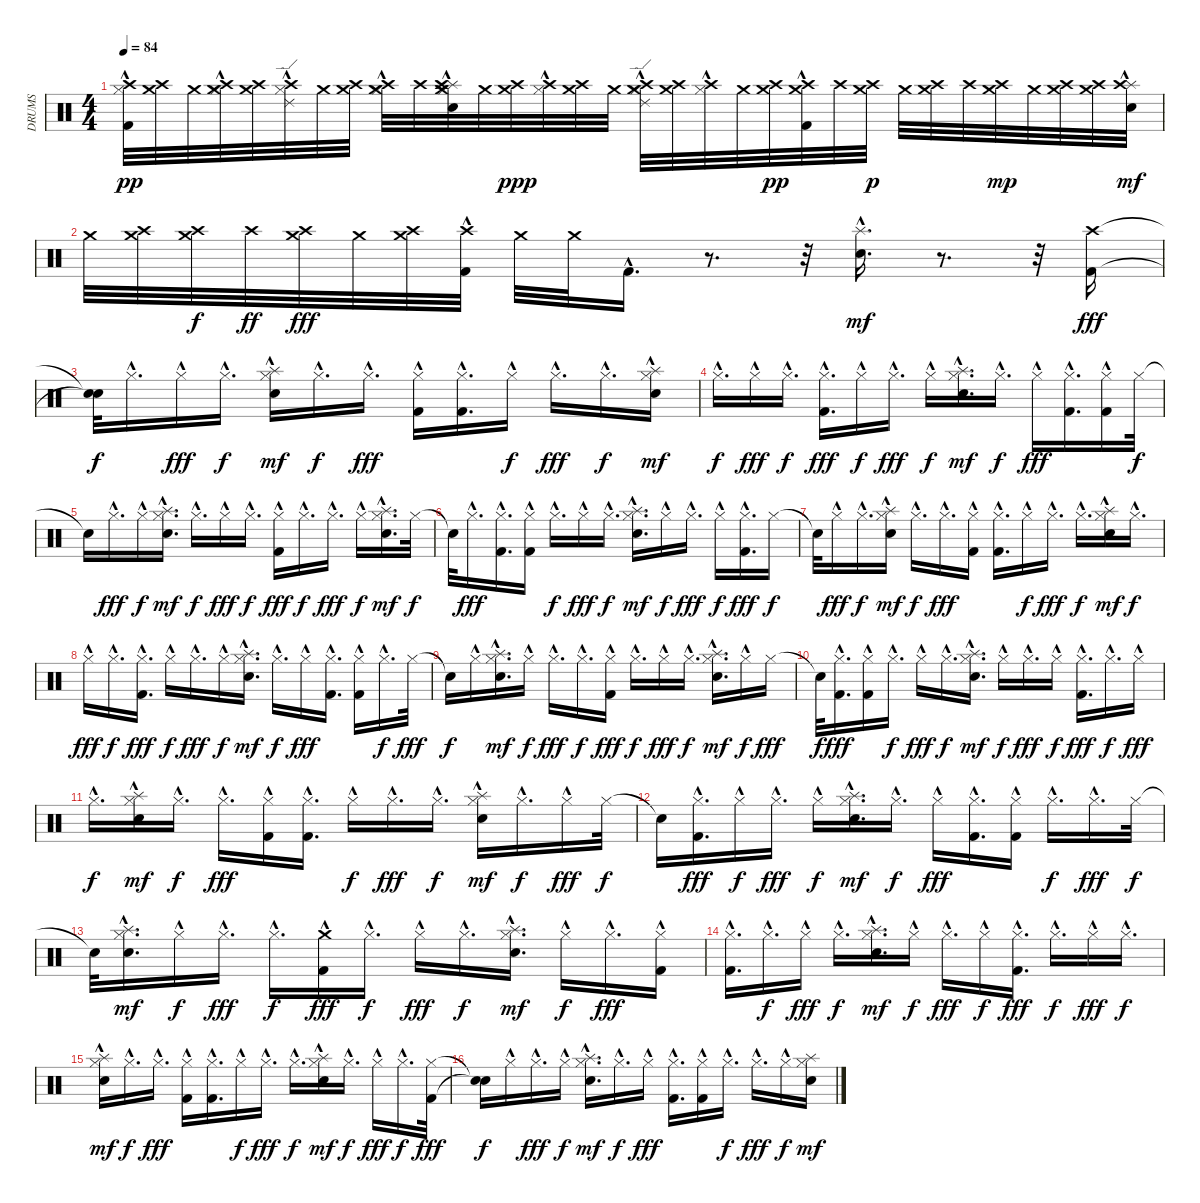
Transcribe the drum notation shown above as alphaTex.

\track ("DRUMS" "DRUMS") {instrument percussion}
\staff {score}
\articulation defaults
\ts (4 4)
\tempo 84
\clef neutral
\ks c
("Hi-Hat (closed)"{hac} "Kick (hit) 2"{hac} "Crash high (hit)").32{dy pp} ("Crash medium (hit)" "Crash high (hit)").32 "Crash medium (hit)".32 ("Hi-Hat (closed)"{hac} "Crash high (hit)" "Crash medium (hit)").32 ("Crash high (hit)" "Crash medium (hit)").32 ("Ride (edge) 2"{hac} "Hi-Hat (closed)"{hac} "Crash high (hit)").32 "Crash medium (hit)".32 ("Crash high (hit)" "Crash medium (hit)").32 ("Hi-Hat (closed)"{hac} "Crash high (hit)" "Crash medium (hit)").32 "Crash high (hit)".32 ("Crash medium (hit)" "Hi-Hat (closed)"{hac} "Snare (hit) 2"{hac} "Splash (hit)"{hac} "Crash high (hit)").32 "Crash medium (hit)".32 ("Crash high (hit)" "Crash medium (hit)").32{dy ppp} ("Hi-Hat (closed)"{hac} "Crash high (hit)").32 ("Crash medium (hit)" "Crash high (hit)").32 "Crash medium (hit)".32 ("Ride (edge) 2"{hac} "Hi-Hat (closed)"{hac} "Crash high (hit)" "Crash medium (hit)").32 ("Crash high (hit)" "Crash medium (hit)").32 ("Hi-Hat (closed)"{hac} "Crash high (hit)").32 "Crash medium (hit)".32 ("Crash high (hit)" "Crash medium (hit)").32{dy pp} ("Kick (hit) 2"{hac} "Crash high (hit)" "Crash medium (hit)").32 "Crash high (hit)".32 ("Crash medium (hit)" "Crash high (hit)").32{dy p} "Crash medium (hit)".32 ("Crash high (hit)" "Crash medium (hit)").32 "Crash high (hit)".32 ("Crash medium (hit)" "Crash high (hit)").32{dy mp} "Crash medium (hit)".32 ("Crash high (hit)" "Crash medium (hit)").32 ("Crash high (hit)" "Crash medium (hit)").32 ("Snare (hit) 2"{hac} "Splash (hit)"{hac} "Crash high (hit)").32{dy mf} |
"Crash medium (hit)".32 ("Crash high (hit)" "Crash medium (hit)").32 ("Crash high (hit)" "Crash medium (hit)").32{dy f} "Crash high (hit)".32{dy ff} ("Crash medium (hit)" "Crash high (hit)").32{dy fff} "Crash medium (hit)".32 ("Crash high (hit)" "Crash medium (hit)").32 ("Kick (hit) 2"{hac} "Crash high (hit)").32 "Crash medium (hit)".32 "Crash medium (hit)".32 "Kick (hit) 2"{hac}.16{d} r.8{d} r.32 ("Snare (hit) 2"{hac} "Splash (hit)"{hac}).16{d dy mf} r.8{d} r.32 ("Kick (hit) 2" "Crash high (hit)").16{dy fff} |
("Snare (hit)"{t} "Snare (hit)"{t}).32{dy f} "Hi-Hat (closed)"{hac}.16{d} "Hi-Hat (closed)"{hac}.16{dy fff} "Hi-Hat (closed)"{hac}.16{d dy f} ("Hi-Hat (closed)"{hac} "Snare (hit) 2"{hac} "Splash (hit)"{hac}).16{dy mf} "Hi-Hat (closed)"{hac}.16{d dy f} "Hi-Hat (closed)"{hac}.16{d dy fff} ("Hi-Hat (closed)"{hac} "Kick (hit) 2"{hac}).16 ("Hi-Hat (closed)"{hac} "Kick (hit) 2"{hac}).16{d} "Hi-Hat (closed)"{hac}.16{dy f} "Hi-Hat (closed)"{hac}.16{d dy fff} "Hi-Hat (closed)"{hac}.16{d dy f} ("Snare (hit) 2"{hac} "Hi-Hat (closed)"{hac} "Splash (hit)"{hac}).16{dy mf} |
"Hi-Hat (closed)"{hac}.16{d dy f} "Hi-Hat (closed)"{hac}.16{dy fff} "Hi-Hat (closed)"{hac}.16{d dy f} ("Hi-Hat (closed)"{hac} "Kick (hit) 2"{hac}).16{d dy fff} "Hi-Hat (closed)"{hac}.16{dy f} "Hi-Hat (closed)"{hac}.16{d dy fff} "Hi-Hat (closed)"{hac}.16{dy f} ("Hi-Hat (closed)"{hac} "Snare (hit) 2"{hac} "Splash (hit)"{hac}).16{d dy mf} "Hi-Hat (closed)"{hac}.16{d dy f} "Hi-Hat (closed)"{hac}.16{dy fff} ("Hi-Hat (closed)"{hac} "Kick (hit) 2"{hac}).16{d} ("Hi-Hat (closed)"{hac} "Kick (hit) 2"{hac}).16 "Hi-Hat (closed)".32{dy f} |
"Snare (hit)"{t}.16 "Hi-Hat (closed)"{hac}.16{d dy fff} "Hi-Hat (closed)"{hac}.16{dy f} ("Hi-Hat (closed)"{hac} "Snare (hit) 2"{hac} "Splash (hit)"{hac}).16{d dy mf} "Hi-Hat (closed)"{hac}.16{d dy f} "Hi-Hat (closed)"{hac}.16{dy fff} "Hi-Hat (closed)"{hac}.16{d dy f} ("Hi-Hat (closed)"{hac} "Kick (hit) 2"{hac}).16{dy fff} "Hi-Hat (closed)"{hac}.16{d dy f} "Hi-Hat (closed)"{hac}.16{d dy fff} "Hi-Hat (closed)"{hac}.16{dy f} ("Hi-Hat (closed)"{hac} "Snare (hit) 2"{hac} "Splash (hit)"{hac}).16{d dy mf} "Hi-Hat (closed)".32{dy f} |
"Snare (hit)"{t}.32 "Hi-Hat (closed)"{hac}.16{d dy fff} ("Kick (hit) 2"{hac} "Hi-Hat (closed)"{hac}).16{d} ("Kick (hit) 2"{hac} "Hi-Hat (closed)"{hac}).16 "Hi-Hat (closed)"{hac}.16{d dy f} "Hi-Hat (closed)"{hac}.16{dy fff} "Hi-Hat (closed)"{hac}.16{d dy f} ("Hi-Hat (closed)"{hac} "Snare (hit) 2"{hac} "Splash (hit)"{hac}).16{d dy mf} "Hi-Hat (closed)"{hac}.16{dy f} "Hi-Hat (closed)"{hac}.16{d dy fff} "Hi-Hat (closed)"{hac}.16{dy f} ("Kick (hit) 2"{hac} "Hi-Hat (closed)"{hac}).16{d dy fff} "Hi-Hat (closed)".16{dy f} |
"Snare (hit)"{t}.32 "Hi-Hat (closed)"{hac}.16{dy fff} "Hi-Hat (closed)"{hac}.16{d dy f} ("Snare (hit) 2"{hac} "Hi-Hat (closed)"{hac} "Splash (hit)"{hac}).16{dy mf} "Hi-Hat (closed)"{hac}.16{d dy f} "Hi-Hat (closed)"{hac}.16{d dy fff} ("Kick (hit) 2"{hac} "Hi-Hat (closed)"{hac}).16 ("Hi-Hat (closed)"{hac} "Kick (hit) 2"{hac}).16{d} "Hi-Hat (closed)"{hac}.16{dy f} "Hi-Hat (closed)"{hac}.16{d dy fff} "Hi-Hat (closed)"{hac}.16{d dy f} ("Hi-Hat (closed)"{hac} "Snare (hit) 2"{hac} "Splash (hit)"{hac}).16{dy mf} "Hi-Hat (closed)"{hac}.16{d dy f} |
"Hi-Hat (closed)"{hac}.16{dy fff} "Hi-Hat (closed)"{hac}.16{d dy f} ("Kick (hit) 2"{hac} "Hi-Hat (closed)"{hac}).16{d dy fff} "Hi-Hat (closed)"{hac}.16{dy f} "Hi-Hat (closed)"{hac}.16{d dy fff} "Hi-Hat (closed)"{hac}.16{dy f} ("Hi-Hat (closed)"{hac} "Snare (hit) 2"{hac} "Splash (hit)"{hac}).16{d dy mf} "Hi-Hat (closed)"{hac}.16{d dy f} "Hi-Hat (closed)"{hac}.16{dy fff} ("Hi-Hat (closed)"{hac} "Kick (hit) 2"{hac}).16{d} ("Kick (hit) 2"{hac} "Hi-Hat (closed)"{hac}).16 "Hi-Hat (closed)"{hac}.16{d dy f} "Hi-Hat (closed)".32{dy fff} |
"Snare (hit)"{t}.16{dy f} "Hi-Hat (closed)"{hac}.16 ("Hi-Hat (closed)"{hac} "Snare (hit) 2"{hac} "Splash (hit)"{hac}).16{d dy mf} "Hi-Hat (closed)"{hac}.16{dy f} "Hi-Hat (closed)"{hac}.16{d dy fff} "Hi-Hat (closed)"{hac}.16{d dy f} ("Kick (hit) 2"{hac} "Hi-Hat (closed)"{hac}).16{dy fff} "Hi-Hat (closed)"{hac}.16{d dy f} "Hi-Hat (closed)"{hac}.16{dy fff} "Hi-Hat (closed)"{hac}.16{d dy f} ("Snare (hit) 2"{hac} "Hi-Hat (closed)"{hac} "Splash (hit)"{hac}).16{d dy mf} "Hi-Hat (closed)"{hac}.16{dy f} "Hi-Hat (closed)".16{dy fff} |
"Snare (hit)"{t}.32{dy f} ("Kick (hit) 2"{hac} "Hi-Hat (closed)"{hac}).16{d dy fff} ("Kick (hit) 2"{hac} "Hi-Hat (closed)"{hac}).16 "Hi-Hat (closed)"{hac}.16{d dy f} "Hi-Hat (closed)"{hac}.16{dy fff} "Hi-Hat (closed)"{hac}.16{d dy f} ("Snare (hit) 2"{hac} "Hi-Hat (closed)"{hac} "Splash (hit)"{hac}).16{d dy mf} "Hi-Hat (closed)"{hac}.16{dy f} "Hi-Hat (closed)"{hac}.16{d dy fff} "Hi-Hat (closed)"{hac}.16{dy f} ("Hi-Hat (closed)"{hac} "Kick (hit) 2"{hac}).16{d dy fff} "Hi-Hat (closed)"{hac}.16{d dy f} "Hi-Hat (closed)"{hac}.16{dy fff} |
"Hi-Hat (closed)"{hac}.16{d dy f} ("Hi-Hat (closed)"{hac} "Snare (hit) 2"{hac} "Splash (hit)"{hac}).16{dy mf} "Hi-Hat (closed)"{hac}.16{d dy f} "Hi-Hat (closed)"{hac}.16{d dy fff} ("Hi-Hat (closed)"{hac} "Kick (hit) 2"{hac}).16 ("Hi-Hat (closed)"{hac} "Kick (hit) 2"{hac}).16{d} "Hi-Hat (closed)"{hac}.16{dy f} "Hi-Hat (closed)"{hac}.16{d dy fff} "Hi-Hat (closed)"{hac}.16{d dy f} ("Hi-Hat (closed)"{hac} "Snare (hit) 2"{hac} "Splash (hit)"{hac}).16{dy mf} "Hi-Hat (closed)"{hac}.16{d dy f} "Hi-Hat (closed)"{hac}.16{dy fff} "Hi-Hat (closed)".32{dy f} |
"Snare (hit)"{t}.16 ("Kick (hit) 2"{hac} "Hi-Hat (closed)"{hac}).16{d dy fff} "Hi-Hat (closed)"{hac}.16{dy f} "Hi-Hat (closed)"{hac}.16{d dy fff} "Hi-Hat (closed)"{hac}.16{dy f} ("Hi-Hat (closed)"{hac} "Snare (hit) 2"{hac} "Splash (hit)"{hac}).16{d dy mf} "Hi-Hat (closed)"{hac}.16{d dy f} "Hi-Hat (closed)"{hac}.16{dy fff} ("Kick (hit) 2"{hac} "Hi-Hat (closed)"{hac}).16{d} ("Kick (hit) 2"{hac} "Hi-Hat (closed)"{hac}).16 "Hi-Hat (closed)"{hac}.16{d dy f} "Hi-Hat (closed)"{hac}.16{d dy fff} "Hi-Hat (closed)".32{dy f} |
"Snare (hit)"{t}.32 ("Hi-Hat (closed)"{hac} "Snare (hit) 2"{hac} "Splash (hit)"{hac}).16{d dy mf} "Hi-Hat (closed)"{hac}.16{dy f} "Hi-Hat (closed)"{hac}.16{d dy fff} "Hi-Hat (closed)"{hac}.16{d dy f} ("Crash medium (hit)" "Kick (hit) 2"{hac}).16{dy fff} "Hi-Hat (closed)"{hac}.16{d dy f} "Hi-Hat (closed)"{hac}.16{dy fff} "Hi-Hat (closed)"{hac}.16{d dy f} ("Snare (hit) 2"{hac} "Hi-Hat (closed)"{hac} "Splash (hit)"{hac}).16{d dy mf} "Hi-Hat (closed)"{hac}.16{dy f} "Hi-Hat (closed)"{hac}.16{d dy fff} ("Hi-Hat (closed)"{hac} "Kick (hit) 2"{hac}).16 |
("Kick (hit) 2"{hac} "Hi-Hat (closed)"{hac}).16{d} "Hi-Hat (closed)"{hac}.16{d dy f} "Hi-Hat (closed)"{hac}.16{dy fff} "Hi-Hat (closed)"{hac}.16{d dy f} ("Hi-Hat (closed)"{hac} "Snare (hit) 2"{hac} "Splash (hit)"{hac}).16{d dy mf} "Hi-Hat (closed)"{hac}.16{dy f} "Hi-Hat (closed)"{hac}.16{d dy fff} "Hi-Hat (closed)"{hac}.16{dy f} ("Kick (hit) 2"{hac} "Hi-Hat (closed)"{hac}).16{d dy fff} "Hi-Hat (closed)"{hac}.16{d dy f} "Hi-Hat (closed)"{hac}.16{dy fff} "Hi-Hat (closed)"{hac}.16{d dy f} |
("Snare (hit) 2"{hac} "Hi-Hat (closed)"{hac} "Splash (hit)"{hac}).16{dy mf} "Hi-Hat (closed)"{hac}.16{d dy f} "Hi-Hat (closed)"{hac}.16{d dy fff} ("Hi-Hat (closed)"{hac} "Kick (hit) 2"{hac}).16 ("Kick (hit) 2"{hac} "Hi-Hat (closed)"{hac}).16{d} "Hi-Hat (closed)"{hac}.16{dy f} "Hi-Hat (closed)"{hac}.16{d dy fff} "Hi-Hat (closed)"{hac}.16{d dy f} ("Hi-Hat (closed)"{hac} "Snare (hit) 2"{hac} "Splash (hit)"{hac}).16{dy mf} "Hi-Hat (closed)"{hac}.16{d dy f} "Hi-Hat (closed)"{hac}.16{dy fff} "Hi-Hat (closed)"{hac}.16{d dy f} ("Hi-Hat (closed)" "Kick (hit) 2").32{dy fff} |
("Snare (hit)"{t} "Snare (hit)"{t}).16{dy f} "Hi-Hat (closed)"{hac}.16 "Hi-Hat (closed)"{hac}.16{d dy fff} "Hi-Hat (closed)"{hac}.16{dy f} ("Hi-Hat (closed)"{hac} "Snare (hit) 2"{hac} "Splash (hit)"{hac}).16{d dy mf} "Hi-Hat (closed)"{hac}.16{d dy f} "Hi-Hat (closed)"{hac}.16{dy fff} ("Hi-Hat (closed)"{hac} "Kick (hit) 2"{hac}).16{d} ("Hi-Hat (closed)"{hac} "Kick (hit) 2"{hac}).16 "Hi-Hat (closed)"{hac}.16{d dy f} "Hi-Hat (closed)"{hac}.16{d dy fff} "Hi-Hat (closed)"{hac}.16{dy f} ("Hi-Hat (closed)" "Snare (hit) 2" "Splash (hit)").16{dy mf}
